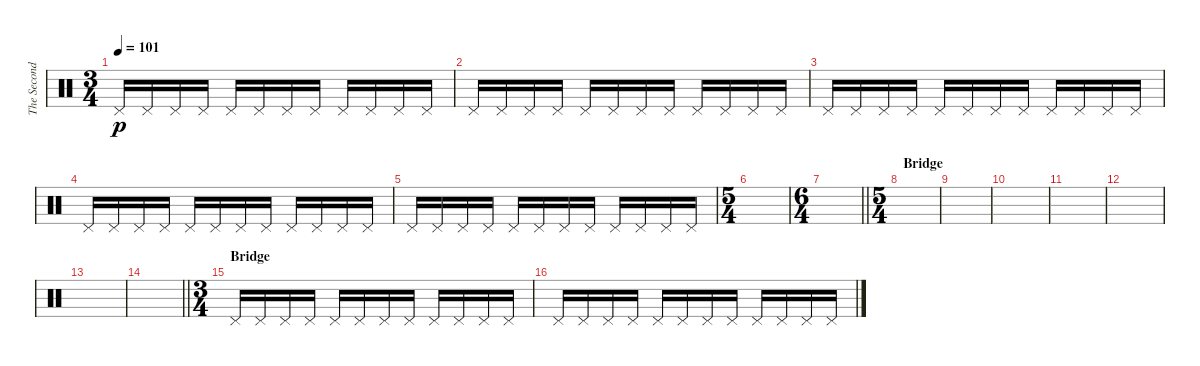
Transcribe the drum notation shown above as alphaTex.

\track ("The Second Drummer" "The Second") {instrument percussion}
\staff {score}
\articulation defaults
\ts (3 4)
\tempo 101
\clef neutral
\ks c "Pedal Hi-Hat (hit)".16{dy p} "Pedal Hi-Hat (hit)".16 "Pedal Hi-Hat (hit)".16 "Pedal Hi-Hat (hit)".16 "Pedal Hi-Hat (hit)".16 "Pedal Hi-Hat (hit)".16 "Pedal Hi-Hat (hit)".16 "Pedal Hi-Hat (hit)".16 "Pedal Hi-Hat (hit)".16 "Pedal Hi-Hat (hit)".16 "Pedal Hi-Hat (hit)".16 "Pedal Hi-Hat (hit)".16
|
"Pedal Hi-Hat (hit)".16 "Pedal Hi-Hat (hit)".16 "Pedal Hi-Hat (hit)".16 "Pedal Hi-Hat (hit)".16 "Pedal Hi-Hat (hit)".16 "Pedal Hi-Hat (hit)".16 "Pedal Hi-Hat (hit)".16 "Pedal Hi-Hat (hit)".16 "Pedal Hi-Hat (hit)".16 "Pedal Hi-Hat (hit)".16 "Pedal Hi-Hat (hit)".16 "Pedal Hi-Hat (hit)".16 |
"Pedal Hi-Hat (hit)".16 "Pedal Hi-Hat (hit)".16 "Pedal Hi-Hat (hit)".16 "Pedal Hi-Hat (hit)".16 "Pedal Hi-Hat (hit)".16 "Pedal Hi-Hat (hit)".16 "Pedal Hi-Hat (hit)".16 "Pedal Hi-Hat (hit)".16 "Pedal Hi-Hat (hit)".16 "Pedal Hi-Hat (hit)".16 "Pedal Hi-Hat (hit)".16 "Pedal Hi-Hat (hit)".16 |
"Pedal Hi-Hat (hit)".16 "Pedal Hi-Hat (hit)".16 "Pedal Hi-Hat (hit)".16 "Pedal Hi-Hat (hit)".16 "Pedal Hi-Hat (hit)".16 "Pedal Hi-Hat (hit)".16 "Pedal Hi-Hat (hit)".16 "Pedal Hi-Hat (hit)".16 "Pedal Hi-Hat (hit)".16 "Pedal Hi-Hat (hit)".16 "Pedal Hi-Hat (hit)".16 "Pedal Hi-Hat (hit)".16 |
"Pedal Hi-Hat (hit)".16 "Pedal Hi-Hat (hit)".16 "Pedal Hi-Hat (hit)".16 "Pedal Hi-Hat (hit)".16 "Pedal Hi-Hat (hit)".16 "Pedal Hi-Hat (hit)".16 "Pedal Hi-Hat (hit)".16 "Pedal Hi-Hat (hit)".16 "Pedal Hi-Hat (hit)".16 "Pedal Hi-Hat (hit)".16 "Pedal Hi-Hat (hit)".16 "Pedal Hi-Hat (hit)".16 |
\ts (5 4)
|
\ts (6 4)
\barLineRight lightlight
|
\ts (5 4)
\section ("" "Bridge")
|
|
|
|
|
|
\barLineRight lightlight
|
\ts (3 4)
\section ("" "Bridge")
"Pedal Hi-Hat (hit)".16 "Pedal Hi-Hat (hit)".16 "Pedal Hi-Hat (hit)".16 "Pedal Hi-Hat (hit)".16 "Pedal Hi-Hat (hit)".16 "Pedal Hi-Hat (hit)".16 "Pedal Hi-Hat (hit)".16 "Pedal Hi-Hat (hit)".16 "Pedal Hi-Hat (hit)".16 "Pedal Hi-Hat (hit)".16 "Pedal Hi-Hat (hit)".16 "Pedal Hi-Hat (hit)".16 |
"Pedal Hi-Hat (hit)".16 "Pedal Hi-Hat (hit)".16 "Pedal Hi-Hat (hit)".16 "Pedal Hi-Hat (hit)".16 "Pedal Hi-Hat (hit)".16 "Pedal Hi-Hat (hit)".16 "Pedal Hi-Hat (hit)".16 "Pedal Hi-Hat (hit)".16 "Pedal Hi-Hat (hit)".16 "Pedal Hi-Hat (hit)".16 "Pedal Hi-Hat (hit)".16 "Pedal Hi-Hat (hit)".16
